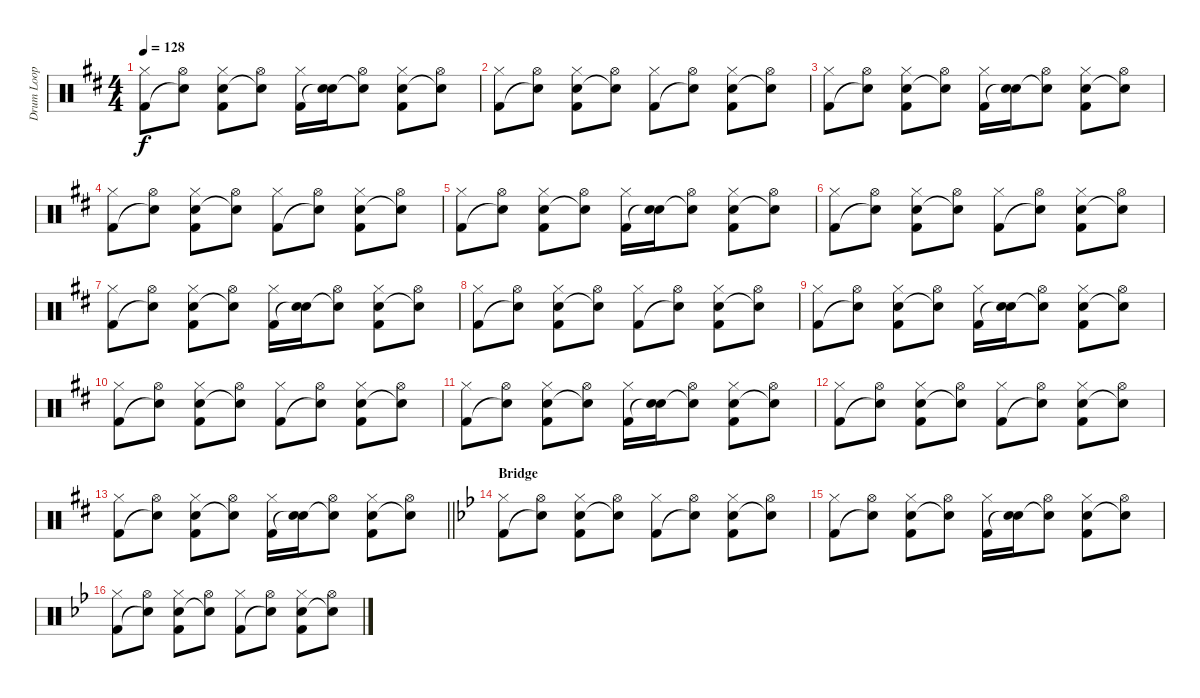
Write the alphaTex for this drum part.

\track ("Drum Loop" "Drum Loop") {instrument percussion}
\staff {score}
\articulation defaults
\ts (4 4)
\tempo 128
\clef neutral
\ks d
("Hi-Hat (closed)" "Kick (hit) 2").8{dy f} ("Hi-Hat (open)" "Snare (hit)"{t}).8 ("Hi-Hat (closed)" "Electric Snare (hit)" "Kick (hit) 2").8 ("Hi-Hat (open)" "Snare (hit)"{t}).8 ("Hi-Hat (closed)" "Kick (hit) 2").16 ("Electric Snare (hit)" "Snare (hit)"{t}).16 ("Hi-Hat (open)" "Snare (hit)"{t}).8 ("Hi-Hat (closed)" "Electric Snare (hit)" "Kick (hit) 2").8 ("Hi-Hat (open)" "Snare (hit)"{t}).8 |
("Hi-Hat (closed)" "Kick (hit) 2").8 ("Hi-Hat (open)" "Snare (hit)"{t}).8 ("Hi-Hat (closed)" "Electric Snare (hit)" "Kick (hit) 2").8 ("Hi-Hat (open)" "Snare (hit)"{t}).8 ("Hi-Hat (closed)" "Kick (hit) 2").8 ("Hi-Hat (open)" "Snare (hit)"{t}).8 ("Hi-Hat (closed)" "Electric Snare (hit)" "Kick (hit) 2").8 ("Hi-Hat (open)" "Snare (hit)"{t}).8 |
("Hi-Hat (closed)" "Kick (hit) 2").8 ("Hi-Hat (open)" "Snare (hit)"{t}).8 ("Hi-Hat (closed)" "Electric Snare (hit)" "Kick (hit) 2").8 ("Hi-Hat (open)" "Snare (hit)"{t}).8 ("Hi-Hat (closed)" "Kick (hit) 2").16 ("Electric Snare (hit)" "Snare (hit)"{t}).16 ("Hi-Hat (open)" "Snare (hit)"{t}).8 ("Hi-Hat (closed)" "Electric Snare (hit)" "Kick (hit) 2").8 ("Hi-Hat (open)" "Snare (hit)"{t}).8 |
("Hi-Hat (closed)" "Kick (hit) 2").8 ("Hi-Hat (open)" "Snare (hit)"{t}).8 ("Hi-Hat (closed)" "Electric Snare (hit)" "Kick (hit) 2").8 ("Hi-Hat (open)" "Snare (hit)"{t}).8 ("Hi-Hat (closed)" "Kick (hit) 2").8 ("Hi-Hat (open)" "Snare (hit)"{t}).8 ("Hi-Hat (closed)" "Electric Snare (hit)" "Kick (hit) 2").8 ("Hi-Hat (open)" "Snare (hit)"{t}).8 |
("Hi-Hat (closed)" "Kick (hit) 2").8 ("Hi-Hat (open)" "Snare (hit)"{t}).8 ("Hi-Hat (closed)" "Electric Snare (hit)" "Kick (hit) 2").8 ("Hi-Hat (open)" "Snare (hit)"{t}).8 ("Hi-Hat (closed)" "Kick (hit) 2").16 ("Electric Snare (hit)" "Snare (hit)"{t}).16 ("Hi-Hat (open)" "Snare (hit)"{t}).8 ("Hi-Hat (closed)" "Electric Snare (hit)" "Kick (hit) 2").8 ("Hi-Hat (open)" "Snare (hit)"{t}).8 |
("Hi-Hat (closed)" "Kick (hit) 2").8 ("Hi-Hat (open)" "Snare (hit)"{t}).8 ("Hi-Hat (closed)" "Electric Snare (hit)" "Kick (hit) 2").8 ("Hi-Hat (open)" "Snare (hit)"{t}).8 ("Hi-Hat (closed)" "Kick (hit) 2").8 ("Hi-Hat (open)" "Snare (hit)"{t}).8 ("Hi-Hat (closed)" "Electric Snare (hit)" "Kick (hit) 2").8 ("Hi-Hat (open)" "Snare (hit)"{t}).8 |
("Hi-Hat (closed)" "Kick (hit) 2").8 ("Hi-Hat (open)" "Snare (hit)"{t}).8 ("Hi-Hat (closed)" "Electric Snare (hit)" "Kick (hit) 2").8 ("Hi-Hat (open)" "Snare (hit)"{t}).8 ("Hi-Hat (closed)" "Kick (hit) 2").16 ("Electric Snare (hit)" "Snare (hit)"{t}).16 ("Hi-Hat (open)" "Snare (hit)"{t}).8 ("Hi-Hat (closed)" "Electric Snare (hit)" "Kick (hit) 2").8 ("Hi-Hat (open)" "Snare (hit)"{t}).8 |
("Hi-Hat (closed)" "Kick (hit) 2").8 ("Hi-Hat (open)" "Snare (hit)"{t}).8 ("Hi-Hat (closed)" "Electric Snare (hit)" "Kick (hit) 2").8 ("Hi-Hat (open)" "Snare (hit)"{t}).8 ("Hi-Hat (closed)" "Kick (hit) 2").8 ("Hi-Hat (open)" "Snare (hit)"{t}).8 ("Hi-Hat (closed)" "Electric Snare (hit)" "Kick (hit) 2").8 ("Hi-Hat (open)" "Snare (hit)"{t}).8 |
("Hi-Hat (closed)" "Kick (hit) 2").8 ("Hi-Hat (open)" "Snare (hit)"{t}).8 ("Hi-Hat (closed)" "Electric Snare (hit)" "Kick (hit) 2").8 ("Hi-Hat (open)" "Snare (hit)"{t}).8 ("Hi-Hat (closed)" "Kick (hit) 2").16 ("Electric Snare (hit)" "Snare (hit)"{t}).16 ("Hi-Hat (open)" "Snare (hit)"{t}).8 ("Hi-Hat (closed)" "Electric Snare (hit)" "Kick (hit) 2").8 ("Hi-Hat (open)" "Snare (hit)"{t}).8 |
("Hi-Hat (closed)" "Kick (hit) 2").8 ("Hi-Hat (open)" "Snare (hit)"{t}).8 ("Hi-Hat (closed)" "Electric Snare (hit)" "Kick (hit) 2").8 ("Hi-Hat (open)" "Snare (hit)"{t}).8 ("Hi-Hat (closed)" "Kick (hit) 2").8 ("Hi-Hat (open)" "Snare (hit)"{t}).8 ("Hi-Hat (closed)" "Electric Snare (hit)" "Kick (hit) 2").8 ("Hi-Hat (open)" "Snare (hit)"{t}).8 |
("Hi-Hat (closed)" "Kick (hit) 2").8 ("Hi-Hat (open)" "Snare (hit)"{t}).8 ("Hi-Hat (closed)" "Electric Snare (hit)" "Kick (hit) 2").8 ("Hi-Hat (open)" "Snare (hit)"{t}).8 ("Hi-Hat (closed)" "Kick (hit) 2").16 ("Electric Snare (hit)" "Snare (hit)"{t}).16 ("Hi-Hat (open)" "Snare (hit)"{t}).8 ("Hi-Hat (closed)" "Electric Snare (hit)" "Kick (hit) 2").8 ("Hi-Hat (open)" "Snare (hit)"{t}).8 |
("Hi-Hat (closed)" "Kick (hit) 2").8 ("Hi-Hat (open)" "Snare (hit)"{t}).8 ("Hi-Hat (closed)" "Electric Snare (hit)" "Kick (hit) 2").8 ("Hi-Hat (open)" "Snare (hit)"{t}).8 ("Hi-Hat (closed)" "Kick (hit) 2").8 ("Hi-Hat (open)" "Snare (hit)"{t}).8 ("Hi-Hat (closed)" "Electric Snare (hit)" "Kick (hit) 2").8 ("Hi-Hat (open)" "Snare (hit)"{t}).8 |
\barLineRight lightlight
("Hi-Hat (closed)" "Kick (hit) 2").8 ("Hi-Hat (open)" "Snare (hit)"{t}).8 ("Hi-Hat (closed)" "Electric Snare (hit)" "Kick (hit) 2").8 ("Hi-Hat (open)" "Snare (hit)"{t}).8 ("Hi-Hat (closed)" "Kick (hit) 2").16 ("Electric Snare (hit)" "Snare (hit)"{t}).16 ("Hi-Hat (open)" "Snare (hit)"{t}).8 ("Hi-Hat (closed)" "Electric Snare (hit)" "Kick (hit) 2").8 ("Hi-Hat (open)" "Snare (hit)"{t}).8 |
\section ("" "Bridge")
\ks gminor
("Hi-Hat (closed)" "Kick (hit) 2").8 ("Hi-Hat (open)" "Snare (hit)"{t}).8 ("Hi-Hat (closed)" "Electric Snare (hit)" "Kick (hit) 2").8 ("Hi-Hat (open)" "Snare (hit)"{t}).8 ("Hi-Hat (closed)" "Kick (hit) 2").8 ("Hi-Hat (open)" "Snare (hit)"{t}).8 ("Hi-Hat (closed)" "Electric Snare (hit)" "Kick (hit) 2").8 ("Hi-Hat (open)" "Snare (hit)"{t}).8 |
("Hi-Hat (closed)" "Kick (hit) 2").8 ("Hi-Hat (open)" "Snare (hit)"{t}).8 ("Hi-Hat (closed)" "Electric Snare (hit)" "Kick (hit) 2").8 ("Hi-Hat (open)" "Snare (hit)"{t}).8 ("Hi-Hat (closed)" "Kick (hit) 2").16 ("Electric Snare (hit)" "Snare (hit)"{t}).16 ("Hi-Hat (open)" "Snare (hit)"{t}).8 ("Hi-Hat (closed)" "Electric Snare (hit)" "Kick (hit) 2").8 ("Hi-Hat (open)" "Snare (hit)"{t}).8 |
("Hi-Hat (closed)" "Kick (hit) 2").8 ("Hi-Hat (open)" "Snare (hit)"{t}).8 ("Hi-Hat (closed)" "Electric Snare (hit)" "Kick (hit) 2").8 ("Hi-Hat (open)" "Snare (hit)"{t}).8 ("Hi-Hat (closed)" "Kick (hit) 2").8 ("Hi-Hat (open)" "Snare (hit)"{t}).8 ("Hi-Hat (closed)" "Electric Snare (hit)" "Kick (hit) 2").8 ("Hi-Hat (open)" "Snare (hit)"{t}).8
